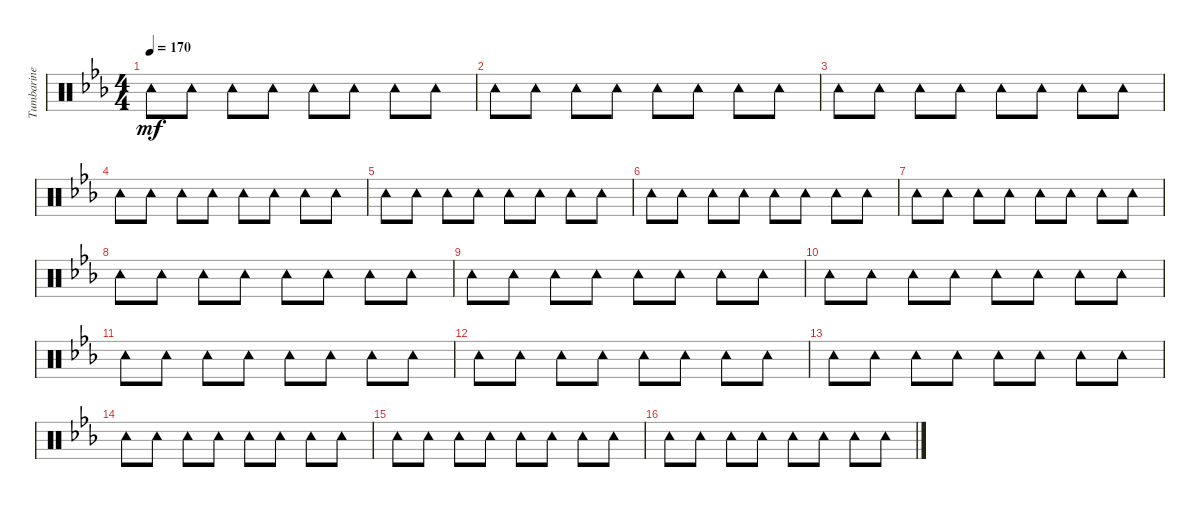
\track ("Tumbarine" "Tumbarine") {solo instrument percussion}
\staff {score}
\articulation defaults
\ts (4 4)
\tempo 170
\clef neutral
\ks eb "Tambourine (hit)".8{dy mf} "Tambourine (hit)".8 "Tambourine (hit)".8 "Tambourine (hit)".8 "Tambourine (hit)".8 "Tambourine (hit)".8 "Tambourine (hit)".8 "Tambourine (hit)".8
|
"Tambourine (hit)".8 "Tambourine (hit)".8 "Tambourine (hit)".8 "Tambourine (hit)".8 "Tambourine (hit)".8 "Tambourine (hit)".8 "Tambourine (hit)".8 "Tambourine (hit)".8 |
"Tambourine (hit)".8 "Tambourine (hit)".8 "Tambourine (hit)".8 "Tambourine (hit)".8 "Tambourine (hit)".8 "Tambourine (hit)".8 "Tambourine (hit)".8 "Tambourine (hit)".8 |
"Tambourine (hit)".8 "Tambourine (hit)".8 "Tambourine (hit)".8 "Tambourine (hit)".8 "Tambourine (hit)".8 "Tambourine (hit)".8 "Tambourine (hit)".8 "Tambourine (hit)".8 |
"Tambourine (hit)".8 "Tambourine (hit)".8 "Tambourine (hit)".8 "Tambourine (hit)".8 "Tambourine (hit)".8 "Tambourine (hit)".8 "Tambourine (hit)".8 "Tambourine (hit)".8 |
"Tambourine (hit)".8 "Tambourine (hit)".8 "Tambourine (hit)".8 "Tambourine (hit)".8 "Tambourine (hit)".8 "Tambourine (hit)".8 "Tambourine (hit)".8 "Tambourine (hit)".8 |
"Tambourine (hit)".8 "Tambourine (hit)".8 "Tambourine (hit)".8 "Tambourine (hit)".8 "Tambourine (hit)".8 "Tambourine (hit)".8 "Tambourine (hit)".8 "Tambourine (hit)".8 |
"Tambourine (hit)".8 "Tambourine (hit)".8 "Tambourine (hit)".8 "Tambourine (hit)".8 "Tambourine (hit)".8 "Tambourine (hit)".8 "Tambourine (hit)".8 "Tambourine (hit)".8 |
"Tambourine (hit)".8 "Tambourine (hit)".8 "Tambourine (hit)".8 "Tambourine (hit)".8 "Tambourine (hit)".8 "Tambourine (hit)".8 "Tambourine (hit)".8 "Tambourine (hit)".8 |
"Tambourine (hit)".8 "Tambourine (hit)".8 "Tambourine (hit)".8 "Tambourine (hit)".8 "Tambourine (hit)".8 "Tambourine (hit)".8 "Tambourine (hit)".8 "Tambourine (hit)".8 |
"Tambourine (hit)".8 "Tambourine (hit)".8 "Tambourine (hit)".8 "Tambourine (hit)".8 "Tambourine (hit)".8 "Tambourine (hit)".8 "Tambourine (hit)".8 "Tambourine (hit)".8 |
"Tambourine (hit)".8 "Tambourine (hit)".8 "Tambourine (hit)".8 "Tambourine (hit)".8 "Tambourine (hit)".8 "Tambourine (hit)".8 "Tambourine (hit)".8 "Tambourine (hit)".8 |
"Tambourine (hit)".8 "Tambourine (hit)".8 "Tambourine (hit)".8 "Tambourine (hit)".8 "Tambourine (hit)".8 "Tambourine (hit)".8 "Tambourine (hit)".8 "Tambourine (hit)".8 |
"Tambourine (hit)".8 "Tambourine (hit)".8 "Tambourine (hit)".8 "Tambourine (hit)".8 "Tambourine (hit)".8 "Tambourine (hit)".8 "Tambourine (hit)".8 "Tambourine (hit)".8 |
"Tambourine (hit)".8 "Tambourine (hit)".8 "Tambourine (hit)".8 "Tambourine (hit)".8 "Tambourine (hit)".8 "Tambourine (hit)".8 "Tambourine (hit)".8 "Tambourine (hit)".8 |
"Tambourine (hit)".8 "Tambourine (hit)".8 "Tambourine (hit)".8 "Tambourine (hit)".8 "Tambourine (hit)".8 "Tambourine (hit)".8 "Tambourine (hit)".8 "Tambourine (hit)".8
